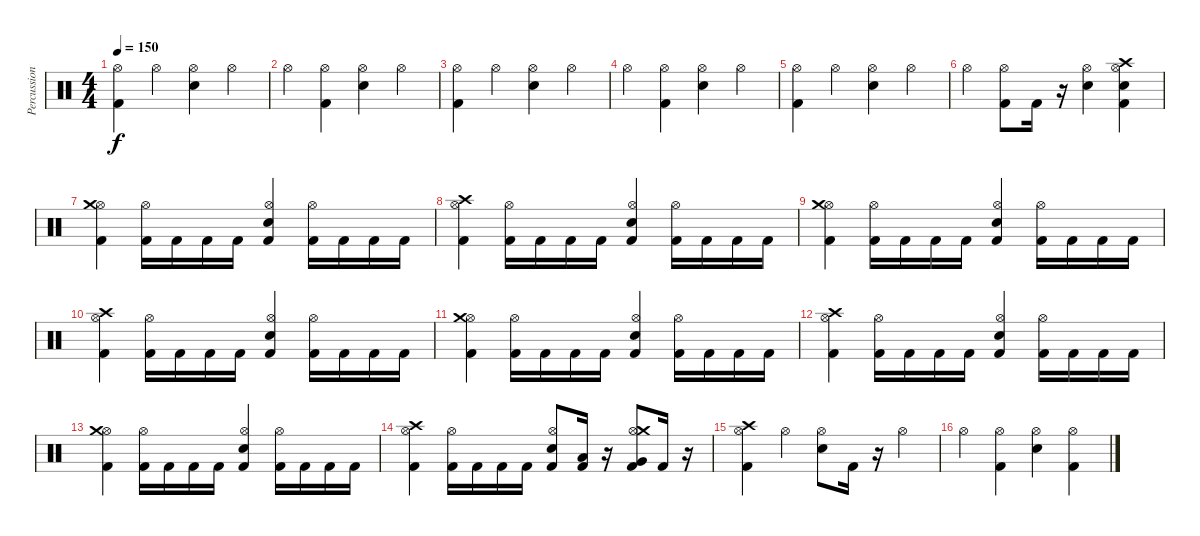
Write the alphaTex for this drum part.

\track ("Percussion" "Percussion") {instrument percussion}
\staff {score}
\articulation defaults
\ts (4 4)
\tempo 150
\clef neutral
\ks c
("Kick (hit) 2" "Hi-Hat (open)").4{dy f} "Hi-Hat (open)".4 ("Electric Snare (hit)" "Hi-Hat (open)").4 "Hi-Hat (open)".4 |
"Hi-Hat (open)".4 ("Kick (hit) 2" "Hi-Hat (open)").4 ("Electric Snare (hit)" "Hi-Hat (open)").4 "Hi-Hat (open)".4 |
("Kick (hit) 2" "Hi-Hat (open)").4 "Hi-Hat (open)".4 ("Electric Snare (hit)" "Hi-Hat (open)").4 "Hi-Hat (open)".4 |
"Hi-Hat (open)".4 ("Kick (hit) 2" "Hi-Hat (open)").4 ("Electric Snare (hit)" "Hi-Hat (open)").4 "Hi-Hat (open)".4 |
("Kick (hit) 2" "Hi-Hat (open)").4 "Hi-Hat (open)".4 ("Electric Snare (hit)" "Hi-Hat (open)").4 "Hi-Hat (open)".4 |
"Hi-Hat (open)".4 ("Kick (hit) 2" "Hi-Hat (open)").8 "Kick (hit) 2".16 r.16 ("Electric Snare (hit)" "Hi-Hat (open)").4 ("Kick (hit) 2" "Electric Snare (hit)" "Hi-Hat (open)" "Crash high (hit)").4 |
("Kick (hit) 2" "Hi-Hat (open)" "Crash medium (hit)").4 ("Kick (hit) 2" "Hi-Hat (open)").16 "Kick (hit) 2".16 "Kick (hit) 2".16 "Kick (hit) 2".16 ("Kick (hit) 2" "Electric Snare (hit)" "Hi-Hat (open)").4 ("Kick (hit) 2" "Hi-Hat (open)").16 "Kick (hit) 2".16 "Kick (hit) 2".16 "Kick (hit) 2".16 |
("Kick (hit) 2" "Hi-Hat (open)" "Crash high (hit)").4 ("Kick (hit) 2" "Hi-Hat (open)").16 "Kick (hit) 2".16 "Kick (hit) 2".16 "Kick (hit) 2".16 ("Kick (hit) 2" "Electric Snare (hit)" "Hi-Hat (open)").4 ("Kick (hit) 2" "Hi-Hat (open)").16 "Kick (hit) 2".16 "Kick (hit) 2".16 "Kick (hit) 2".16 |
("Kick (hit) 2" "Hi-Hat (open)" "Crash medium (hit)").4 ("Kick (hit) 2" "Hi-Hat (open)").16 "Kick (hit) 2".16 "Kick (hit) 2".16 "Kick (hit) 2".16 ("Kick (hit) 2" "Electric Snare (hit)" "Hi-Hat (open)").4 ("Kick (hit) 2" "Hi-Hat (open)").16 "Kick (hit) 2".16 "Kick (hit) 2".16 "Kick (hit) 2".16 |
("Kick (hit) 2" "Hi-Hat (open)" "Crash high (hit)").4 ("Kick (hit) 2" "Hi-Hat (open)").16 "Kick (hit) 2".16 "Kick (hit) 2".16 "Kick (hit) 2".16 ("Kick (hit) 2" "Electric Snare (hit)" "Hi-Hat (open)").4 ("Kick (hit) 2" "Hi-Hat (open)").16 "Kick (hit) 2".16 "Kick (hit) 2".16 "Kick (hit) 2".16 |
("Kick (hit) 2" "Hi-Hat (open)" "Crash medium (hit)").4 ("Kick (hit) 2" "Hi-Hat (open)").16 "Kick (hit) 2".16 "Kick (hit) 2".16 "Kick (hit) 2".16 ("Kick (hit) 2" "Electric Snare (hit)" "Hi-Hat (open)").4 ("Kick (hit) 2" "Hi-Hat (open)").16 "Kick (hit) 2".16 "Kick (hit) 2".16 "Kick (hit) 2".16 |
("Kick (hit) 2" "Hi-Hat (open)" "Crash high (hit)").4 ("Kick (hit) 2" "Hi-Hat (open)").16 "Kick (hit) 2".16 "Kick (hit) 2".16 "Kick (hit) 2".16 ("Kick (hit) 2" "Electric Snare (hit)" "Hi-Hat (open)").4 ("Kick (hit) 2" "Hi-Hat (open)").16 "Kick (hit) 2".16 "Kick (hit) 2".16 "Kick (hit) 2".16 |
("Kick (hit) 2" "Hi-Hat (open)" "Crash medium (hit)").4 ("Kick (hit) 2" "Hi-Hat (open)").16 "Kick (hit) 2".16 "Kick (hit) 2".16 "Kick (hit) 2".16 ("Kick (hit) 2" "Electric Snare (hit)" "Hi-Hat (open)").4 ("Kick (hit) 2" "Hi-Hat (open)").16 "Kick (hit) 2".16 "Kick (hit) 2".16 "Kick (hit) 2".16 |
("Kick (hit) 2" "Hi-Hat (open)" "Crash high (hit)").4 ("Kick (hit) 2" "Hi-Hat (open)").16 "Kick (hit) 2".16 "Kick (hit) 2".16 "Kick (hit) 2".16 ("Kick (hit) 2" "Electric Snare (hit)" "Hi-Hat (open)").8 ("Kick (hit) 2" "Low Tom (hit)").16 r.16 ("Kick (hit) 2" "Very Low Tom (hit)" "Hi-Hat (open)" "Crash medium (hit)").8 "Kick (hit) 2".16 r.16 |
("Kick (hit) 2" "Hi-Hat (open)" "Crash high (hit)").4 "Hi-Hat (open)".4 ("Electric Snare (hit)" "Hi-Hat (open)").8 "Kick (hit) 2".16 r.16 "Hi-Hat (open)".4 |
"Hi-Hat (open)".4 ("Kick (hit) 2" "Hi-Hat (open)").4 ("Electric Snare (hit)" "Hi-Hat (open)").4 ("Kick (hit) 2" "Hi-Hat (open)").4
